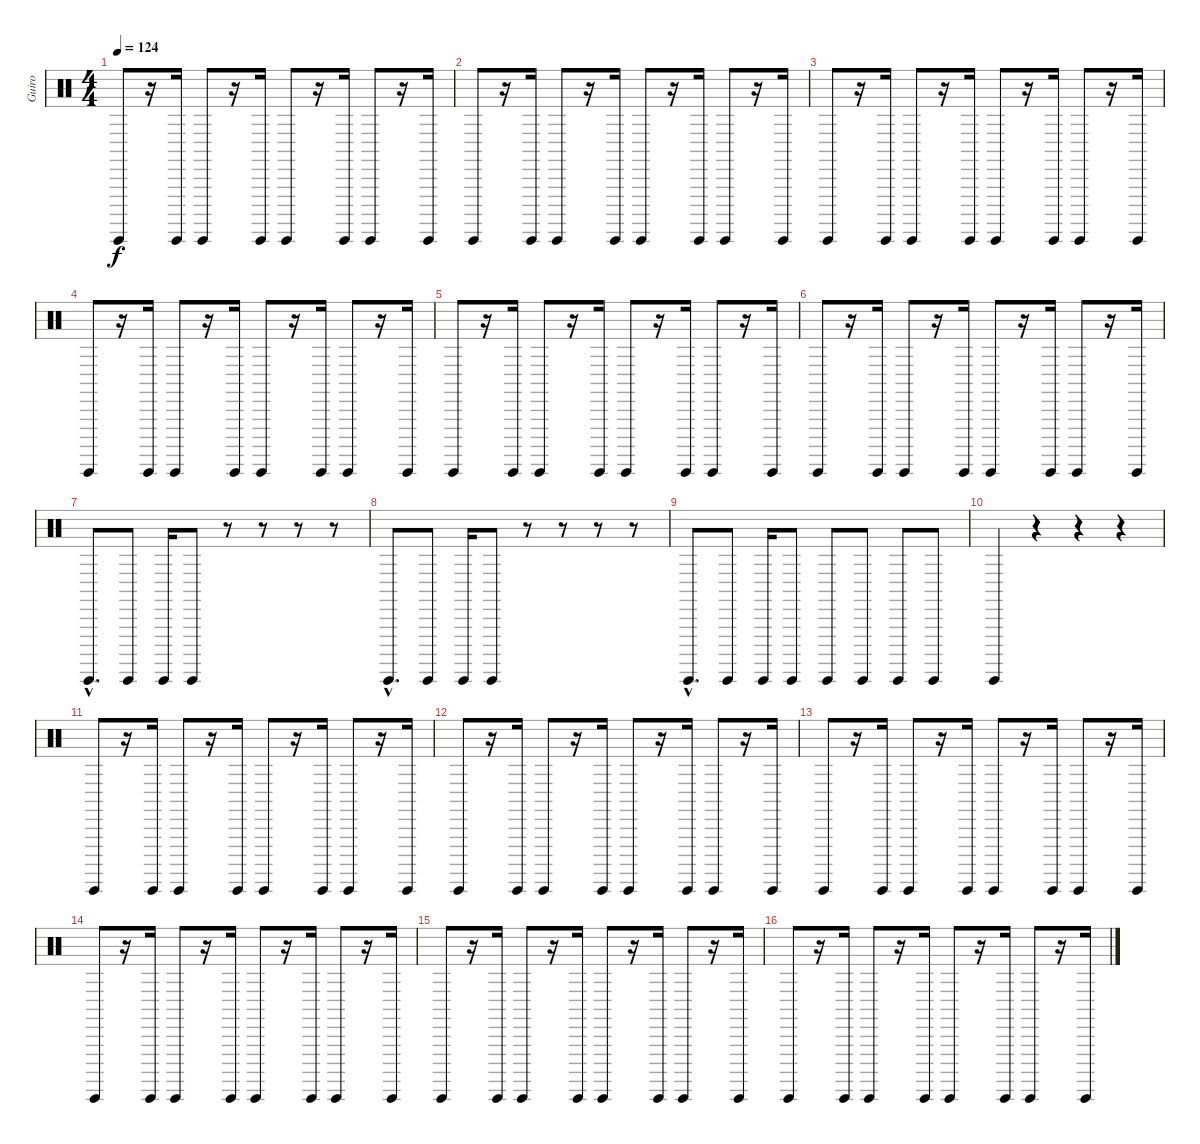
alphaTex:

\track ("Guiro" "Guiro") {instrument percussion}
\staff {score}
\articulation defaults
\ts (4 4)
\tempo 124
\clef neutral
\ks c "Guiro (hit)".8{dy f}
r.16 "Guiro (hit)".16 "Guiro (hit)".8 r.16 "Guiro (hit)".16 "Guiro (hit)".8 r.16 "Guiro (hit)".16 "Guiro (hit)".8 r.16 "Guiro (hit)".16 |
"Guiro (hit)".8 r.16 "Guiro (hit)".16 "Guiro (hit)".8 r.16 "Guiro (hit)".16 "Guiro (hit)".8 r.16 "Guiro (hit)".16 "Guiro (hit)".8 r.16 "Guiro (hit)".16 |
"Guiro (hit)".8 r.16 "Guiro (hit)".16 "Guiro (hit)".8 r.16 "Guiro (hit)".16 "Guiro (hit)".8 r.16 "Guiro (hit)".16 "Guiro (hit)".8 r.16 "Guiro (hit)".16 |
"Guiro (hit)".8 r.16 "Guiro (hit)".16 "Guiro (hit)".8 r.16 "Guiro (hit)".16 "Guiro (hit)".8 r.16 "Guiro (hit)".16 "Guiro (hit)".8 r.16 "Guiro (hit)".16 |
"Guiro (hit)".8 r.16 "Guiro (hit)".16 "Guiro (hit)".8 r.16 "Guiro (hit)".16 "Guiro (hit)".8 r.16 "Guiro (hit)".16 "Guiro (hit)".8 r.16 "Guiro (hit)".16 |
"Guiro (hit)".8 r.16 "Guiro (hit)".16 "Guiro (hit)".8 r.16 "Guiro (hit)".16 "Guiro (hit)".8 r.16 "Guiro (hit)".16 "Guiro (hit)".8 r.16 "Guiro (hit)".16 |
"Guiro (hit)"{hac}.8{d} "Guiro (hit)".8 "Guiro (hit)".16 "Guiro (hit)".8 r.8 r.8 r.8 r.8 |
"Guiro (hit)"{hac}.8{d} "Guiro (hit)".8 "Guiro (hit)".16 "Guiro (hit)".8 r.8 r.8 r.8 r.8 |
"Guiro (hit)"{hac}.8{d} "Guiro (hit)".8 "Guiro (hit)".16 "Guiro (hit)".8 "Guiro (hit)".8 "Guiro (hit)".8 "Guiro (hit)".8 "Guiro (hit)".8 |
"Guiro (hit)".4 r.4 r.4 r.4 |
"Guiro (hit)".8 r.16 "Guiro (hit)".16 "Guiro (hit)".8 r.16 "Guiro (hit)".16 "Guiro (hit)".8 r.16 "Guiro (hit)".16 "Guiro (hit)".8 r.16 "Guiro (hit)".16 |
"Guiro (hit)".8 r.16 "Guiro (hit)".16 "Guiro (hit)".8 r.16 "Guiro (hit)".16 "Guiro (hit)".8 r.16 "Guiro (hit)".16 "Guiro (hit)".8 r.16 "Guiro (hit)".16 |
"Guiro (hit)".8 r.16 "Guiro (hit)".16 "Guiro (hit)".8 r.16 "Guiro (hit)".16 "Guiro (hit)".8 r.16 "Guiro (hit)".16 "Guiro (hit)".8 r.16 "Guiro (hit)".16 |
"Guiro (hit)".8 r.16 "Guiro (hit)".16 "Guiro (hit)".8 r.16 "Guiro (hit)".16 "Guiro (hit)".8 r.16 "Guiro (hit)".16 "Guiro (hit)".8 r.16 "Guiro (hit)".16 |
"Guiro (hit)".8 r.16 "Guiro (hit)".16 "Guiro (hit)".8 r.16 "Guiro (hit)".16 "Guiro (hit)".8 r.16 "Guiro (hit)".16 "Guiro (hit)".8 r.16 "Guiro (hit)".16 |
"Guiro (hit)".8 r.16 "Guiro (hit)".16 "Guiro (hit)".8 r.16 "Guiro (hit)".16 "Guiro (hit)".8 r.16 "Guiro (hit)".16 "Guiro (hit)".8 r.16 "Guiro (hit)".16
